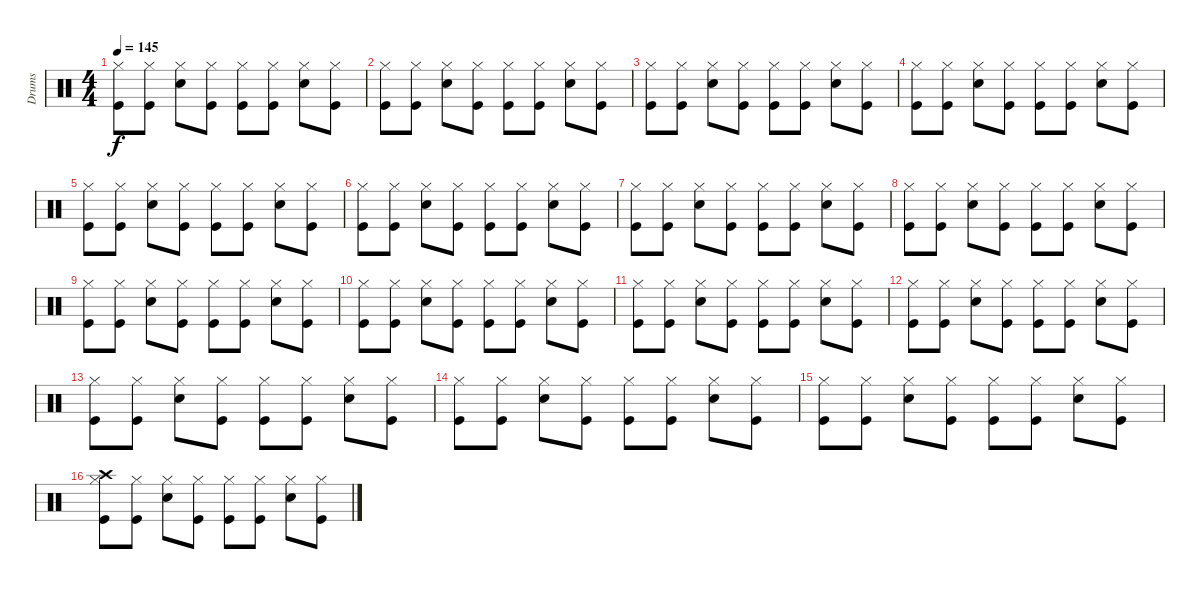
\track ("Drums" "Drums") {instrument percussion}
\staff {score}
\articulation defaults
\ts (4 4)
\tempo 145
\clef neutral
\ks c
("Kick (hit)" "Hi-Hat (closed)").8{dy f} ("Kick (hit)" "Hi-Hat (closed)").8 ("Hi-Hat (closed)" "Snare (hit) 2").8 ("Kick (hit)" "Hi-Hat (closed)").8 ("Kick (hit)" "Hi-Hat (closed)").8 ("Kick (hit)" "Hi-Hat (closed)").8 ("Hi-Hat (closed)" "Snare (hit) 2").8 ("Kick (hit)" "Hi-Hat (closed)").8 |
("Kick (hit)" "Hi-Hat (closed)").8 ("Kick (hit)" "Hi-Hat (closed)").8 ("Hi-Hat (closed)" "Snare (hit) 2").8 ("Kick (hit)" "Hi-Hat (closed)").8 ("Kick (hit)" "Hi-Hat (closed)").8 ("Kick (hit)" "Hi-Hat (closed)").8 ("Hi-Hat (closed)" "Snare (hit) 2").8 ("Kick (hit)" "Hi-Hat (closed)").8 |
("Kick (hit)" "Hi-Hat (closed)").8 ("Kick (hit)" "Hi-Hat (closed)").8 ("Hi-Hat (closed)" "Snare (hit) 2").8 ("Kick (hit)" "Hi-Hat (closed)").8 ("Kick (hit)" "Hi-Hat (closed)").8 ("Kick (hit)" "Hi-Hat (closed)").8 ("Hi-Hat (closed)" "Snare (hit) 2").8 ("Kick (hit)" "Hi-Hat (closed)").8 |
("Kick (hit)" "Hi-Hat (closed)").8 ("Kick (hit)" "Hi-Hat (closed)").8 ("Hi-Hat (closed)" "Snare (hit) 2").8 ("Kick (hit)" "Hi-Hat (closed)").8 ("Kick (hit)" "Hi-Hat (closed)").8 ("Kick (hit)" "Hi-Hat (closed)").8 ("Hi-Hat (closed)" "Snare (hit) 2").8 ("Kick (hit)" "Hi-Hat (closed)").8 |
("Kick (hit)" "Hi-Hat (closed)").8 ("Kick (hit)" "Hi-Hat (closed)").8 ("Hi-Hat (closed)" "Snare (hit) 2").8 ("Kick (hit)" "Hi-Hat (closed)").8 ("Kick (hit)" "Hi-Hat (closed)").8 ("Kick (hit)" "Hi-Hat (closed)").8 ("Hi-Hat (closed)" "Snare (hit) 2").8 ("Kick (hit)" "Hi-Hat (closed)").8 |
("Kick (hit)" "Hi-Hat (closed)").8 ("Kick (hit)" "Hi-Hat (closed)").8 ("Hi-Hat (closed)" "Snare (hit) 2").8 ("Kick (hit)" "Hi-Hat (closed)").8 ("Kick (hit)" "Hi-Hat (closed)").8 ("Kick (hit)" "Hi-Hat (closed)").8 ("Hi-Hat (closed)" "Snare (hit) 2").8 ("Kick (hit)" "Hi-Hat (closed)").8 |
("Kick (hit)" "Hi-Hat (closed)").8 ("Kick (hit)" "Hi-Hat (closed)").8 ("Hi-Hat (closed)" "Snare (hit) 2").8 ("Kick (hit)" "Hi-Hat (closed)").8 ("Kick (hit)" "Hi-Hat (closed)").8 ("Kick (hit)" "Hi-Hat (closed)").8 ("Hi-Hat (closed)" "Snare (hit) 2").8 ("Kick (hit)" "Hi-Hat (closed)").8 |
("Kick (hit)" "Hi-Hat (closed)").8 ("Kick (hit)" "Hi-Hat (closed)").8 ("Hi-Hat (closed)" "Snare (hit) 2").8 ("Kick (hit)" "Hi-Hat (closed)").8 ("Kick (hit)" "Hi-Hat (closed)").8 ("Kick (hit)" "Hi-Hat (closed)").8 ("Hi-Hat (closed)" "Snare (hit) 2").8 ("Kick (hit)" "Hi-Hat (closed)").8 |
("Kick (hit)" "Hi-Hat (closed)").8 ("Kick (hit)" "Hi-Hat (closed)").8 ("Hi-Hat (closed)" "Snare (hit) 2").8 ("Kick (hit)" "Hi-Hat (closed)").8 ("Kick (hit)" "Hi-Hat (closed)").8 ("Kick (hit)" "Hi-Hat (closed)").8 ("Hi-Hat (closed)" "Snare (hit) 2").8 ("Kick (hit)" "Hi-Hat (closed)").8 |
("Kick (hit)" "Hi-Hat (closed)").8 ("Kick (hit)" "Hi-Hat (closed)").8 ("Hi-Hat (closed)" "Snare (hit) 2").8 ("Kick (hit)" "Hi-Hat (closed)").8 ("Kick (hit)" "Hi-Hat (closed)").8 ("Kick (hit)" "Hi-Hat (closed)").8 ("Hi-Hat (closed)" "Snare (hit) 2").8 ("Kick (hit)" "Hi-Hat (closed)").8 |
("Kick (hit)" "Hi-Hat (closed)").8 ("Kick (hit)" "Hi-Hat (closed)").8 ("Hi-Hat (closed)" "Snare (hit) 2").8 ("Kick (hit)" "Hi-Hat (closed)").8 ("Kick (hit)" "Hi-Hat (closed)").8 ("Kick (hit)" "Hi-Hat (closed)").8 ("Hi-Hat (closed)" "Snare (hit) 2").8 ("Kick (hit)" "Hi-Hat (closed)").8 |
("Kick (hit)" "Hi-Hat (closed)").8 ("Kick (hit)" "Hi-Hat (closed)").8 ("Hi-Hat (closed)" "Snare (hit) 2").8 ("Kick (hit)" "Hi-Hat (closed)").8 ("Kick (hit)" "Hi-Hat (closed)").8 ("Kick (hit)" "Hi-Hat (closed)").8 ("Hi-Hat (closed)" "Snare (hit) 2").8 ("Kick (hit)" "Hi-Hat (closed)").8 |
("Kick (hit)" "Hi-Hat (closed)").8 ("Kick (hit)" "Hi-Hat (closed)").8 ("Hi-Hat (closed)" "Snare (hit) 2").8 ("Kick (hit)" "Hi-Hat (closed)").8 ("Kick (hit)" "Hi-Hat (closed)").8 ("Kick (hit)" "Hi-Hat (closed)").8 ("Hi-Hat (closed)" "Snare (hit) 2").8 ("Kick (hit)" "Hi-Hat (closed)").8 |
("Kick (hit)" "Hi-Hat (closed)").8 ("Kick (hit)" "Hi-Hat (closed)").8 ("Hi-Hat (closed)" "Snare (hit) 2").8 ("Kick (hit)" "Hi-Hat (closed)").8 ("Kick (hit)" "Hi-Hat (closed)").8 ("Kick (hit)" "Hi-Hat (closed)").8 ("Hi-Hat (closed)" "Snare (hit) 2").8 ("Kick (hit)" "Hi-Hat (closed)").8 |
("Kick (hit)" "Hi-Hat (closed)").8 ("Kick (hit)" "Hi-Hat (closed)").8 ("Hi-Hat (closed)" "Snare (hit) 2").8 ("Kick (hit)" "Hi-Hat (closed)").8 ("Kick (hit)" "Hi-Hat (closed)").8 ("Kick (hit)" "Hi-Hat (closed)").8 ("Hi-Hat (closed)" "Snare (hit) 2").8 ("Kick (hit)" "Hi-Hat (closed)").8 |
("Kick (hit)" "Hi-Hat (closed)" "Crash high (hit)").8 ("Kick (hit)" "Hi-Hat (closed)").8 ("Hi-Hat (closed)" "Snare (hit) 2").8 ("Kick (hit)" "Hi-Hat (closed)").8 ("Kick (hit)" "Hi-Hat (closed)").8 ("Kick (hit)" "Hi-Hat (closed)").8 ("Hi-Hat (closed)" "Snare (hit) 2").8 ("Kick (hit)" "Hi-Hat (closed)").8
